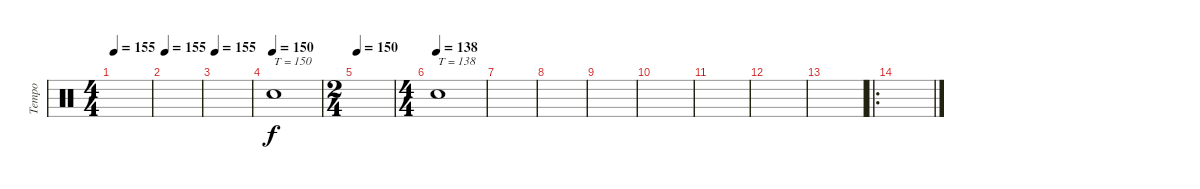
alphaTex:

\track ("Tempo" "Tempo") {instrument percussion}
\staff {score}
\articulation defaults
\ts (4 4)
\tempo 155
\clef neutral
\ks c
|
\tempo 155
|
\tempo 155
|
\tempo (150)
"Snare (hit)"{x}.1{txt "T = 150"} |
\ts (2 4)
\tempo 150
|
\ts (4 4)
\tempo (138)
"Snare (hit)"{x}.1{txt "T = 138"} |
|
|
|
|
|
|
|
\ro
